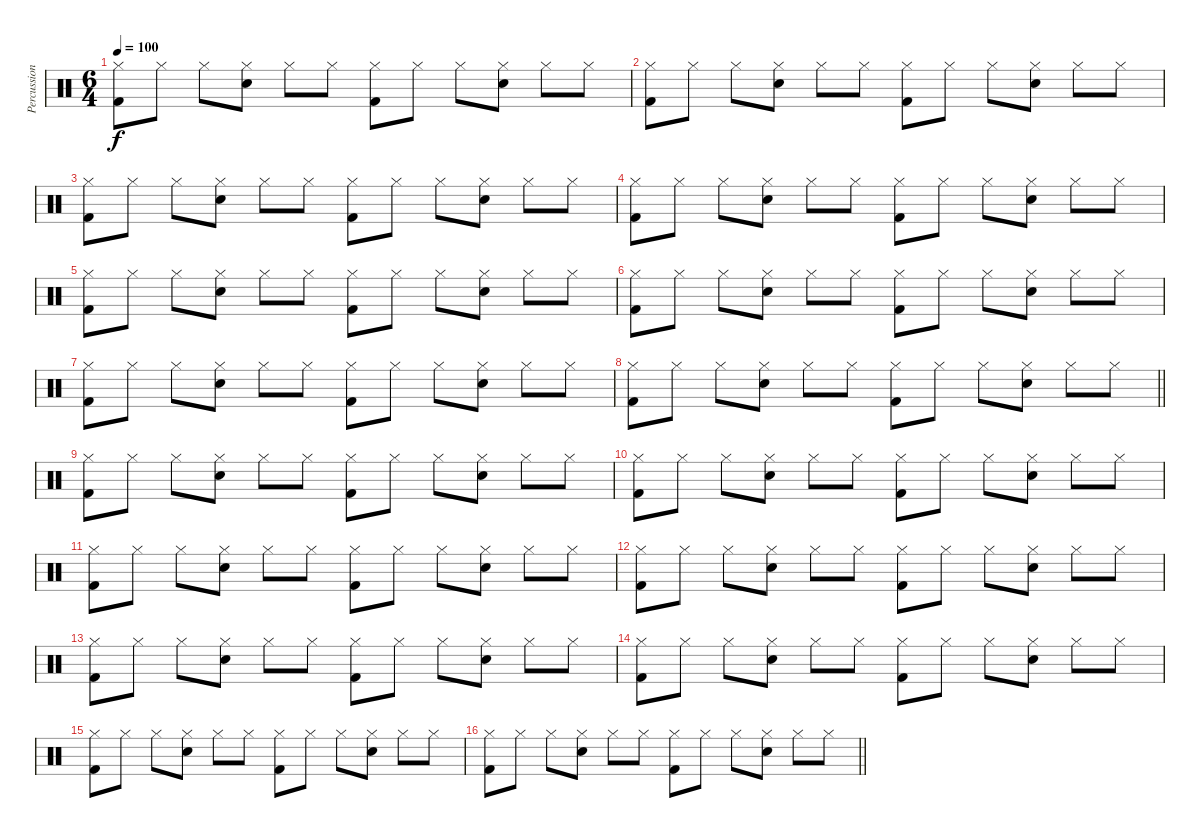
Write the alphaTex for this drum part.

\track ("Percussions" "Percussion") {instrument percussion}
\staff {score}
\articulation defaults
\ts (6 4)
\tempo 100
\clef neutral
\ks c
("Hi-Hat (closed)" "Kick (hit) 2").8{dy f} "Hi-Hat (closed)".8 "Hi-Hat (closed)".8 ("Hi-Hat (closed)" "Electric Snare (hit)").8 "Hi-Hat (closed)".8 "Hi-Hat (closed)".8 ("Hi-Hat (closed)" "Kick (hit) 2").8 "Hi-Hat (closed)".8 "Hi-Hat (closed)".8 ("Hi-Hat (closed)" "Electric Snare (hit)").8 "Hi-Hat (closed)".8 "Hi-Hat (closed)".8 |
("Hi-Hat (closed)" "Kick (hit) 2").8 "Hi-Hat (closed)".8 "Hi-Hat (closed)".8 ("Hi-Hat (closed)" "Electric Snare (hit)").8 "Hi-Hat (closed)".8 "Hi-Hat (closed)".8 ("Hi-Hat (closed)" "Kick (hit) 2").8 "Hi-Hat (closed)".8 "Hi-Hat (closed)".8 ("Hi-Hat (closed)" "Electric Snare (hit)").8 "Hi-Hat (closed)".8 "Hi-Hat (closed)".8 |
("Hi-Hat (closed)" "Kick (hit) 2").8 "Hi-Hat (closed)".8 "Hi-Hat (closed)".8 ("Hi-Hat (closed)" "Electric Snare (hit)").8 "Hi-Hat (closed)".8 "Hi-Hat (closed)".8 ("Hi-Hat (closed)" "Kick (hit) 2").8 "Hi-Hat (closed)".8 "Hi-Hat (closed)".8 ("Hi-Hat (closed)" "Electric Snare (hit)").8 "Hi-Hat (closed)".8 "Hi-Hat (closed)".8 |
("Hi-Hat (closed)" "Kick (hit) 2").8 "Hi-Hat (closed)".8 "Hi-Hat (closed)".8 ("Hi-Hat (closed)" "Electric Snare (hit)").8 "Hi-Hat (closed)".8 "Hi-Hat (closed)".8 ("Hi-Hat (closed)" "Kick (hit) 2").8 "Hi-Hat (closed)".8 "Hi-Hat (closed)".8 ("Hi-Hat (closed)" "Electric Snare (hit)").8 "Hi-Hat (closed)".8 "Hi-Hat (closed)".8 |
("Hi-Hat (closed)" "Kick (hit) 2").8 "Hi-Hat (closed)".8 "Hi-Hat (closed)".8 ("Hi-Hat (closed)" "Electric Snare (hit)").8 "Hi-Hat (closed)".8 "Hi-Hat (closed)".8 ("Hi-Hat (closed)" "Kick (hit) 2").8 "Hi-Hat (closed)".8 "Hi-Hat (closed)".8 ("Hi-Hat (closed)" "Electric Snare (hit)").8 "Hi-Hat (closed)".8 "Hi-Hat (closed)".8 |
("Hi-Hat (closed)" "Kick (hit) 2").8 "Hi-Hat (closed)".8 "Hi-Hat (closed)".8 ("Hi-Hat (closed)" "Electric Snare (hit)").8 "Hi-Hat (closed)".8 "Hi-Hat (closed)".8 ("Hi-Hat (closed)" "Kick (hit) 2").8 "Hi-Hat (closed)".8 "Hi-Hat (closed)".8 ("Hi-Hat (closed)" "Electric Snare (hit)").8 "Hi-Hat (closed)".8 "Hi-Hat (closed)".8 |
("Hi-Hat (closed)" "Kick (hit) 2").8 "Hi-Hat (closed)".8 "Hi-Hat (closed)".8 ("Hi-Hat (closed)" "Electric Snare (hit)").8 "Hi-Hat (closed)".8 "Hi-Hat (closed)".8 ("Hi-Hat (closed)" "Kick (hit) 2").8 "Hi-Hat (closed)".8 "Hi-Hat (closed)".8 ("Hi-Hat (closed)" "Electric Snare (hit)").8 "Hi-Hat (closed)".8 "Hi-Hat (closed)".8 |
\barLineRight lightlight
("Hi-Hat (closed)" "Kick (hit) 2").8 "Hi-Hat (closed)".8 "Hi-Hat (closed)".8 ("Hi-Hat (closed)" "Electric Snare (hit)").8 "Hi-Hat (closed)".8 "Hi-Hat (closed)".8 ("Hi-Hat (closed)" "Kick (hit) 2").8 "Hi-Hat (closed)".8 "Hi-Hat (closed)".8 ("Hi-Hat (closed)" "Electric Snare (hit)").8 "Hi-Hat (closed)".8 "Hi-Hat (closed)".8 |
("Hi-Hat (closed)" "Kick (hit) 2").8 "Hi-Hat (closed)".8 "Hi-Hat (closed)".8 ("Hi-Hat (closed)" "Electric Snare (hit)").8 "Hi-Hat (closed)".8 "Hi-Hat (closed)".8 ("Hi-Hat (closed)" "Kick (hit) 2").8 "Hi-Hat (closed)".8 "Hi-Hat (closed)".8 ("Hi-Hat (closed)" "Electric Snare (hit)").8 "Hi-Hat (closed)".8 "Hi-Hat (closed)".8 |
("Hi-Hat (closed)" "Kick (hit) 2").8 "Hi-Hat (closed)".8 "Hi-Hat (closed)".8 ("Hi-Hat (closed)" "Electric Snare (hit)").8 "Hi-Hat (closed)".8 "Hi-Hat (closed)".8 ("Hi-Hat (closed)" "Kick (hit) 2").8 "Hi-Hat (closed)".8 "Hi-Hat (closed)".8 ("Hi-Hat (closed)" "Electric Snare (hit)").8 "Hi-Hat (closed)".8 "Hi-Hat (closed)".8 |
("Hi-Hat (closed)" "Kick (hit) 2").8 "Hi-Hat (closed)".8 "Hi-Hat (closed)".8 ("Hi-Hat (closed)" "Electric Snare (hit)").8 "Hi-Hat (closed)".8 "Hi-Hat (closed)".8 ("Hi-Hat (closed)" "Kick (hit) 2").8 "Hi-Hat (closed)".8 "Hi-Hat (closed)".8 ("Hi-Hat (closed)" "Electric Snare (hit)").8 "Hi-Hat (closed)".8 "Hi-Hat (closed)".8 |
("Hi-Hat (closed)" "Kick (hit) 2").8 "Hi-Hat (closed)".8 "Hi-Hat (closed)".8 ("Hi-Hat (closed)" "Electric Snare (hit)").8 "Hi-Hat (closed)".8 "Hi-Hat (closed)".8 ("Hi-Hat (closed)" "Kick (hit) 2").8 "Hi-Hat (closed)".8 "Hi-Hat (closed)".8 ("Hi-Hat (closed)" "Electric Snare (hit)").8 "Hi-Hat (closed)".8 "Hi-Hat (closed)".8 |
("Hi-Hat (closed)" "Kick (hit) 2").8 "Hi-Hat (closed)".8 "Hi-Hat (closed)".8 ("Hi-Hat (closed)" "Electric Snare (hit)").8 "Hi-Hat (closed)".8 "Hi-Hat (closed)".8 ("Hi-Hat (closed)" "Kick (hit) 2").8 "Hi-Hat (closed)".8 "Hi-Hat (closed)".8 ("Hi-Hat (closed)" "Electric Snare (hit)").8 "Hi-Hat (closed)".8 "Hi-Hat (closed)".8 |
("Hi-Hat (closed)" "Kick (hit) 2").8 "Hi-Hat (closed)".8 "Hi-Hat (closed)".8 ("Hi-Hat (closed)" "Electric Snare (hit)").8 "Hi-Hat (closed)".8 "Hi-Hat (closed)".8 ("Hi-Hat (closed)" "Kick (hit) 2").8 "Hi-Hat (closed)".8 "Hi-Hat (closed)".8 ("Hi-Hat (closed)" "Electric Snare (hit)").8 "Hi-Hat (closed)".8 "Hi-Hat (closed)".8 |
("Hi-Hat (closed)" "Kick (hit) 2").8 "Hi-Hat (closed)".8 "Hi-Hat (closed)".8 ("Hi-Hat (closed)" "Electric Snare (hit)").8 "Hi-Hat (closed)".8 "Hi-Hat (closed)".8 ("Hi-Hat (closed)" "Kick (hit) 2").8 "Hi-Hat (closed)".8 "Hi-Hat (closed)".8 ("Hi-Hat (closed)" "Electric Snare (hit)").8 "Hi-Hat (closed)".8 "Hi-Hat (closed)".8 |
\barLineRight lightlight
("Hi-Hat (closed)" "Kick (hit) 2").8 "Hi-Hat (closed)".8 "Hi-Hat (closed)".8 ("Hi-Hat (closed)" "Electric Snare (hit)").8 "Hi-Hat (closed)".8 "Hi-Hat (closed)".8 ("Hi-Hat (closed)" "Kick (hit) 2").8 "Hi-Hat (closed)".8 "Hi-Hat (closed)".8 ("Hi-Hat (closed)" "Electric Snare (hit)").8 "Hi-Hat (closed)".8 "Hi-Hat (closed)".8
